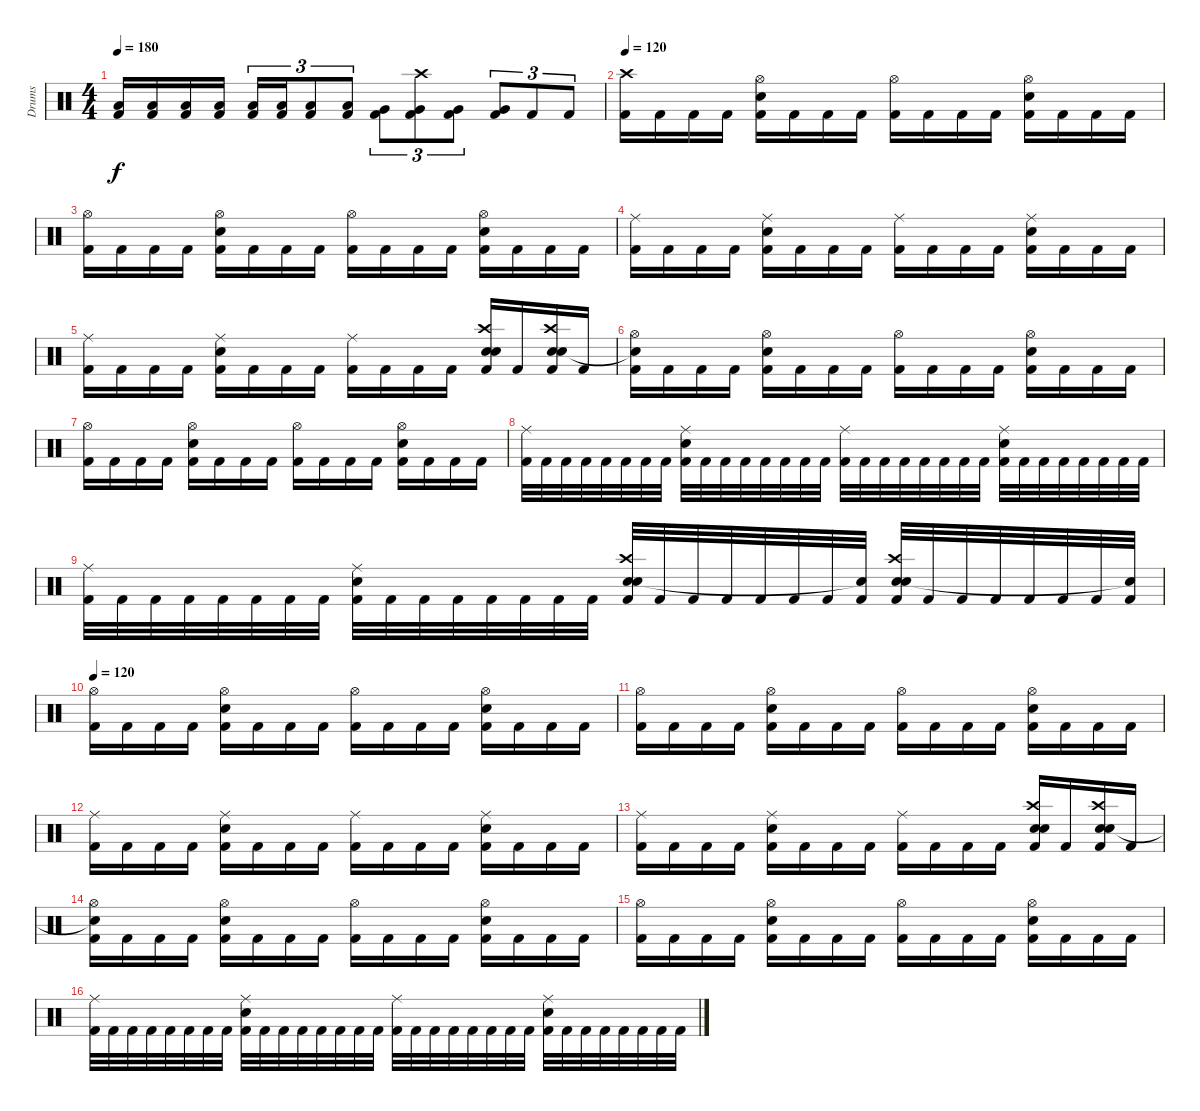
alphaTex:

\track ("Drums" "Drums") {instrument percussion}
\staff {score}
\articulation defaults
\ts (4 4)
\tempo 180
\clef neutral
\ks c
("Kick (hit) 2" "Low Tom (hit)").16{dy f} ("Kick (hit) 2" "Low Tom (hit)").16 ("Kick (hit) 2" "Low Tom (hit)").16 ("Kick (hit) 2" "Low Tom (hit)").16 ("Kick (hit) 2" "Low Tom (hit)").16{tu (3 2)} ("Kick (hit) 2" "Low Tom (hit)").16{tu (3 2)} ("Kick (hit) 2" "Low Tom (hit)").8{tu (3 2)} ("Kick (hit) 2" "Low Tom (hit)").8{tu (3 2)} ("Kick (hit) 2" "Very Low Tom (hit)").8{tu (3 2)} ("Kick (hit) 2" "Very Low Tom (hit)" "Crash high (hit)").8{tu (3 2)} ("Kick (hit) 2" "Very Low Tom (hit)").8{tu (3 2)} ("Kick (hit) 2" "Very Low Tom (hit)").8{tu (3 2)} "Kick (hit) 2".8{tu (3 2)} "Kick (hit) 2".8{tu (3 2)} |
\tempo 120
("Kick (hit) 2" "Crash high (hit)").16 "Kick (hit) 2".16 "Kick (hit) 2".16 "Kick (hit) 2".16 ("Kick (hit) 2" "Snare (hit) 2" "Hi-Hat (open)").16 "Kick (hit) 2".16 "Kick (hit) 2".16 "Kick (hit) 2".16 ("Kick (hit) 2" "Hi-Hat (open)").16 "Kick (hit) 2".16 "Kick (hit) 2".16 "Kick (hit) 2".16 ("Kick (hit) 2" "Snare (hit) 2" "Hi-Hat (open)").16 "Kick (hit) 2".16 "Kick (hit) 2".16 "Kick (hit) 2".16 |
("Kick (hit) 2" "Hi-Hat (open)").16 "Kick (hit) 2".16 "Kick (hit) 2".16 "Kick (hit) 2".16 ("Kick (hit) 2" "Snare (hit) 2" "Hi-Hat (open)").16 "Kick (hit) 2".16 "Kick (hit) 2".16 "Kick (hit) 2".16 ("Kick (hit) 2" "Hi-Hat (open)").16 "Kick (hit) 2".16 "Kick (hit) 2".16 "Kick (hit) 2".16 ("Kick (hit) 2" "Snare (hit) 2" "Hi-Hat (open)").16 "Kick (hit) 2".16 "Kick (hit) 2".16 "Kick (hit) 2".16 |
("Kick (hit) 2" "Ride (middle)").16 "Kick (hit) 2".16 "Kick (hit) 2".16 "Kick (hit) 2".16 ("Kick (hit) 2" "Snare (hit) 2" "Ride (middle)").16 "Kick (hit) 2".16 "Kick (hit) 2".16 "Kick (hit) 2".16 ("Kick (hit) 2" "Ride (middle)").16 "Kick (hit) 2".16 "Kick (hit) 2".16 "Kick (hit) 2".16 ("Kick (hit) 2" "Snare (hit) 2" "Ride (middle)").16 "Kick (hit) 2".16 "Kick (hit) 2".16 "Kick (hit) 2".16 |
("Kick (hit) 2" "Ride (middle)").16 "Kick (hit) 2".16 "Kick (hit) 2".16 "Kick (hit) 2".16 ("Kick (hit) 2" "Snare (hit) 2" "Ride (middle)").16 "Kick (hit) 2".16 "Kick (hit) 2".16 "Kick (hit) 2".16 ("Kick (hit) 2" "Ride (middle)").16 "Kick (hit) 2".16 "Kick (hit) 2".16 "Kick (hit) 2".16 ("Kick (hit) 2" "Snare (hit) 2" "Snare (hit) 2" "Crash high (hit)").16 "Kick (hit) 2".16 ("Kick (hit) 2" "Snare (hit) 2" "Snare (hit) 2" "Crash high (hit)").16 "Kick (hit) 2".16 |
("Kick (hit) 2" "Hi-Hat (open)" "Snare (hit)"{t}).16 "Kick (hit) 2".16 "Kick (hit) 2".16 "Kick (hit) 2".16 ("Kick (hit) 2" "Snare (hit) 2" "Hi-Hat (open)").16 "Kick (hit) 2".16 "Kick (hit) 2".16 "Kick (hit) 2".16 ("Kick (hit) 2" "Hi-Hat (open)").16 "Kick (hit) 2".16 "Kick (hit) 2".16 "Kick (hit) 2".16 ("Kick (hit) 2" "Snare (hit) 2" "Hi-Hat (open)").16 "Kick (hit) 2".16 "Kick (hit) 2".16 "Kick (hit) 2".16 |
("Kick (hit) 2" "Hi-Hat (open)").16 "Kick (hit) 2".16 "Kick (hit) 2".16 "Kick (hit) 2".16 ("Kick (hit) 2" "Snare (hit) 2" "Hi-Hat (open)").16 "Kick (hit) 2".16 "Kick (hit) 2".16 "Kick (hit) 2".16 ("Kick (hit) 2" "Hi-Hat (open)").16 "Kick (hit) 2".16 "Kick (hit) 2".16 "Kick (hit) 2".16 ("Kick (hit) 2" "Snare (hit) 2" "Hi-Hat (open)").16 "Kick (hit) 2".16 "Kick (hit) 2".16 "Kick (hit) 2".16 |
("Kick (hit) 2" "Ride (middle)").32 "Kick (hit) 2".32 "Kick (hit) 2".32 "Kick (hit) 2".32 "Kick (hit) 2".32 "Kick (hit) 2".32 "Kick (hit) 2".32 "Kick (hit) 2".32 ("Kick (hit) 2" "Snare (hit) 2" "Ride (middle)").32 "Kick (hit) 2".32 "Kick (hit) 2".32 "Kick (hit) 2".32 "Kick (hit) 2".32 "Kick (hit) 2".32 "Kick (hit) 2".32 "Kick (hit) 2".32 ("Kick (hit) 2" "Ride (middle)").32 "Kick (hit) 2".32 "Kick (hit) 2".32 "Kick (hit) 2".32 "Kick (hit) 2".32 "Kick (hit) 2".32 "Kick (hit) 2".32 "Kick (hit) 2".32 ("Kick (hit) 2" "Snare (hit) 2" "Ride (middle)").32 "Kick (hit) 2".32 "Kick (hit) 2".32 "Kick (hit) 2".32 "Kick (hit) 2".32 "Kick (hit) 2".32 "Kick (hit) 2".32 "Kick (hit) 2".32 |
("Kick (hit) 2" "Ride (middle)").32 "Kick (hit) 2".32 "Kick (hit) 2".32 "Kick (hit) 2".32 "Kick (hit) 2".32 "Kick (hit) 2".32 "Kick (hit) 2".32 "Kick (hit) 2".32 ("Kick (hit) 2" "Snare (hit) 2" "Ride (middle)").32 "Kick (hit) 2".32 "Kick (hit) 2".32 "Kick (hit) 2".32 "Kick (hit) 2".32 "Kick (hit) 2".32 "Kick (hit) 2".32 "Kick (hit) 2".32 ("Kick (hit) 2" "Snare (hit) 2" "Snare (hit) 2" "Crash high (hit)").32 "Kick (hit) 2".32 "Kick (hit) 2".32 "Kick (hit) 2".32 "Kick (hit) 2".32 "Kick (hit) 2".32 "Kick (hit) 2".32 ("Kick (hit) 2" "Snare (hit)"{t}).32 ("Kick (hit) 2" "Snare (hit) 2" "Snare (hit) 2" "Crash high (hit)").32 "Kick (hit) 2".32 "Kick (hit) 2".32 "Kick (hit) 2".32 "Kick (hit) 2".32 "Kick (hit) 2".32 "Kick (hit) 2".32 ("Kick (hit) 2" "Snare (hit)"{t}).32 |
\tempo 120
("Kick (hit) 2" "Hi-Hat (open)").16 "Kick (hit) 2".16 "Kick (hit) 2".16 "Kick (hit) 2".16 ("Kick (hit) 2" "Snare (hit) 2" "Hi-Hat (open)").16 "Kick (hit) 2".16 "Kick (hit) 2".16 "Kick (hit) 2".16 ("Kick (hit) 2" "Hi-Hat (open)").16 "Kick (hit) 2".16 "Kick (hit) 2".16 "Kick (hit) 2".16 ("Kick (hit) 2" "Snare (hit) 2" "Hi-Hat (open)").16 "Kick (hit) 2".16 "Kick (hit) 2".16 "Kick (hit) 2".16 |
("Kick (hit) 2" "Hi-Hat (open)").16 "Kick (hit) 2".16 "Kick (hit) 2".16 "Kick (hit) 2".16 ("Kick (hit) 2" "Snare (hit) 2" "Hi-Hat (open)").16 "Kick (hit) 2".16 "Kick (hit) 2".16 "Kick (hit) 2".16 ("Kick (hit) 2" "Hi-Hat (open)").16 "Kick (hit) 2".16 "Kick (hit) 2".16 "Kick (hit) 2".16 ("Kick (hit) 2" "Snare (hit) 2" "Hi-Hat (open)").16 "Kick (hit) 2".16 "Kick (hit) 2".16 "Kick (hit) 2".16 |
("Kick (hit) 2" "Ride (middle)").16 "Kick (hit) 2".16 "Kick (hit) 2".16 "Kick (hit) 2".16 ("Kick (hit) 2" "Snare (hit) 2" "Ride (middle)").16 "Kick (hit) 2".16 "Kick (hit) 2".16 "Kick (hit) 2".16 ("Kick (hit) 2" "Ride (middle)").16 "Kick (hit) 2".16 "Kick (hit) 2".16 "Kick (hit) 2".16 ("Kick (hit) 2" "Snare (hit) 2" "Ride (middle)").16 "Kick (hit) 2".16 "Kick (hit) 2".16 "Kick (hit) 2".16 |
("Kick (hit) 2" "Ride (middle)").16 "Kick (hit) 2".16 "Kick (hit) 2".16 "Kick (hit) 2".16 ("Kick (hit) 2" "Snare (hit) 2" "Ride (middle)").16 "Kick (hit) 2".16 "Kick (hit) 2".16 "Kick (hit) 2".16 ("Kick (hit) 2" "Ride (middle)").16 "Kick (hit) 2".16 "Kick (hit) 2".16 "Kick (hit) 2".16 ("Kick (hit) 2" "Snare (hit) 2" "Snare (hit) 2" "Crash high (hit)").16 "Kick (hit) 2".16 ("Kick (hit) 2" "Snare (hit) 2" "Snare (hit) 2" "Crash high (hit)").16 "Kick (hit) 2".16 |
("Kick (hit) 2" "Hi-Hat (open)" "Snare (hit)"{t}).16 "Kick (hit) 2".16 "Kick (hit) 2".16 "Kick (hit) 2".16 ("Kick (hit) 2" "Snare (hit) 2" "Hi-Hat (open)").16 "Kick (hit) 2".16 "Kick (hit) 2".16 "Kick (hit) 2".16 ("Kick (hit) 2" "Hi-Hat (open)").16 "Kick (hit) 2".16 "Kick (hit) 2".16 "Kick (hit) 2".16 ("Kick (hit) 2" "Snare (hit) 2" "Hi-Hat (open)").16 "Kick (hit) 2".16 "Kick (hit) 2".16 "Kick (hit) 2".16 |
("Kick (hit) 2" "Hi-Hat (open)").16 "Kick (hit) 2".16 "Kick (hit) 2".16 "Kick (hit) 2".16 ("Kick (hit) 2" "Snare (hit) 2" "Hi-Hat (open)").16 "Kick (hit) 2".16 "Kick (hit) 2".16 "Kick (hit) 2".16 ("Kick (hit) 2" "Hi-Hat (open)").16 "Kick (hit) 2".16 "Kick (hit) 2".16 "Kick (hit) 2".16 ("Kick (hit) 2" "Snare (hit) 2" "Hi-Hat (open)").16 "Kick (hit) 2".16 "Kick (hit) 2".16 "Kick (hit) 2".16 |
("Kick (hit) 2" "Ride (middle)").32 "Kick (hit) 2".32 "Kick (hit) 2".32 "Kick (hit) 2".32 "Kick (hit) 2".32 "Kick (hit) 2".32 "Kick (hit) 2".32 "Kick (hit) 2".32 ("Kick (hit) 2" "Snare (hit) 2" "Ride (middle)").32 "Kick (hit) 2".32 "Kick (hit) 2".32 "Kick (hit) 2".32 "Kick (hit) 2".32 "Kick (hit) 2".32 "Kick (hit) 2".32 "Kick (hit) 2".32 ("Kick (hit) 2" "Ride (middle)").32 "Kick (hit) 2".32 "Kick (hit) 2".32 "Kick (hit) 2".32 "Kick (hit) 2".32 "Kick (hit) 2".32 "Kick (hit) 2".32 "Kick (hit) 2".32 ("Kick (hit) 2" "Snare (hit) 2" "Ride (middle)").32 "Kick (hit) 2".32 "Kick (hit) 2".32 "Kick (hit) 2".32 "Kick (hit) 2".32 "Kick (hit) 2".32 "Kick (hit) 2".32 "Kick (hit) 2".32
